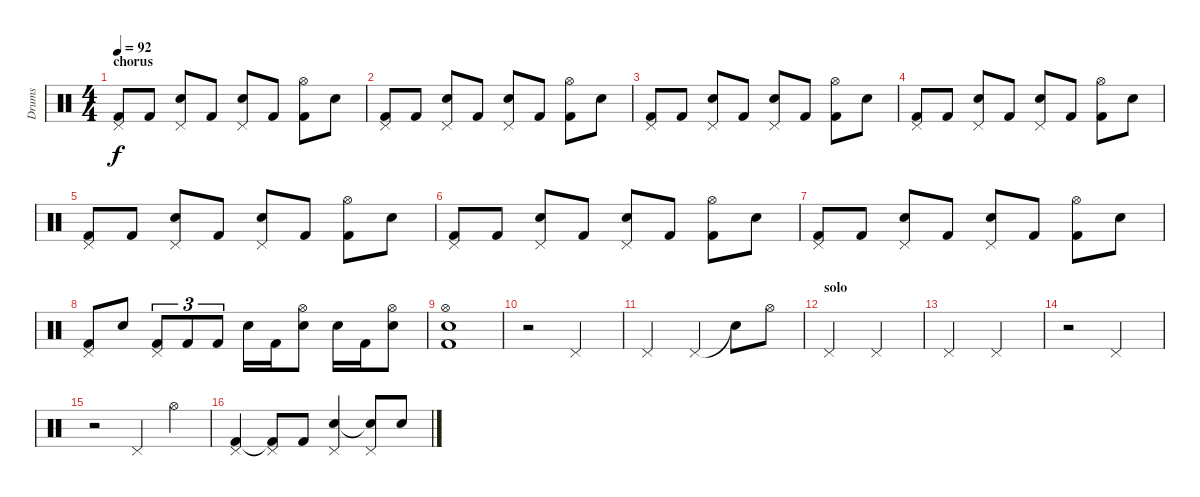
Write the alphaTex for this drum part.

\track ("Drums" "Drums") {instrument percussion}
\staff {score}
\articulation defaults
\ts (4 4)
\section ("" "chorus")
\tempo 92
\clef neutral
\ks c
("Pedal Hi-Hat (hit)" "Kick (hit) 2").8{dy f} "Kick (hit) 2".8 ("Pedal Hi-Hat (hit)" "Snare (hit) 2").8 "Kick (hit) 2".8 ("Pedal Hi-Hat (hit)" "Snare (hit) 2").8 "Kick (hit) 2".8 ("Hi-Hat (open)" "Kick (hit) 2").8 "Snare (hit) 2".8 |
("Pedal Hi-Hat (hit)" "Kick (hit) 2").8 "Kick (hit) 2".8 ("Pedal Hi-Hat (hit)" "Snare (hit) 2").8 "Kick (hit) 2".8 ("Pedal Hi-Hat (hit)" "Snare (hit) 2").8 "Kick (hit) 2".8 ("Hi-Hat (open)" "Kick (hit) 2").8 "Snare (hit) 2".8 |
("Pedal Hi-Hat (hit)" "Kick (hit) 2").8 "Kick (hit) 2".8 ("Pedal Hi-Hat (hit)" "Snare (hit) 2").8 "Kick (hit) 2".8 ("Pedal Hi-Hat (hit)" "Snare (hit) 2").8 "Kick (hit) 2".8 ("Hi-Hat (open)" "Kick (hit) 2").8 "Snare (hit) 2".8 |
("Pedal Hi-Hat (hit)" "Kick (hit) 2").8 "Kick (hit) 2".8 ("Pedal Hi-Hat (hit)" "Snare (hit) 2").8 "Kick (hit) 2".8 ("Pedal Hi-Hat (hit)" "Snare (hit) 2").8 "Kick (hit) 2".8 ("Hi-Hat (open)" "Kick (hit) 2").8 "Snare (hit) 2".8 |
("Pedal Hi-Hat (hit)" "Kick (hit) 2").8 "Kick (hit) 2".8 ("Pedal Hi-Hat (hit)" "Snare (hit) 2").8 "Kick (hit) 2".8 ("Pedal Hi-Hat (hit)" "Snare (hit) 2").8 "Kick (hit) 2".8 ("Hi-Hat (open)" "Kick (hit) 2").8 "Snare (hit) 2".8 |
("Pedal Hi-Hat (hit)" "Kick (hit) 2").8 "Kick (hit) 2".8 ("Pedal Hi-Hat (hit)" "Snare (hit) 2").8 "Kick (hit) 2".8 ("Pedal Hi-Hat (hit)" "Snare (hit) 2").8 "Kick (hit) 2".8 ("Hi-Hat (open)" "Kick (hit) 2").8 "Snare (hit) 2".8 |
("Pedal Hi-Hat (hit)" "Kick (hit) 2").8 "Kick (hit) 2".8 ("Pedal Hi-Hat (hit)" "Snare (hit) 2").8 "Kick (hit) 2".8 ("Pedal Hi-Hat (hit)" "Snare (hit) 2").8 "Kick (hit) 2".8 ("Hi-Hat (open)" "Kick (hit) 2").8 "Snare (hit) 2".8 |
("Pedal Hi-Hat (hit)" "Kick (hit) 2").8 "Snare (hit) 2".8 ("Pedal Hi-Hat (hit)" "Kick (hit) 2").8{tu (3 2)} "Kick (hit) 2".8{tu (3 2)} "Kick (hit) 2".8{tu (3 2)} "Snare (hit) 2".16 "Kick (hit) 2".16 ("Hi-Hat (open)" "Snare (hit) 2").8 "Snare (hit) 2".16 "Kick (hit) 2".16 ("Hi-Hat (open)" "Snare (hit) 2").8 |
("Hi-Hat (open)" "Snare (hit) 2" "Kick (hit) 2").1 |
r.2 "Pedal Hi-Hat (hit)".2 |
"Pedal Hi-Hat (hit)".2 "Pedal Hi-Hat (hit)".4 "Snare (hit)"{t}.8 "Hi-Hat (open)".8 |
\section ("" "solo")
"Pedal Hi-Hat (hit)".2 "Pedal Hi-Hat (hit)".2 |
"Pedal Hi-Hat (hit)".2 "Pedal Hi-Hat (hit)".2 |
r.2 "Pedal Hi-Hat (hit)".2 |
r.2 "Pedal Hi-Hat (hit)".4 "Hi-Hat (open)".4 |
("Pedal Hi-Hat (hit)" "Kick (hit) 2").4 ("Pedal Hi-Hat (hit)" "Kick (hit) 2"{t}).8 "Kick (hit) 2".8 ("Pedal Hi-Hat (hit)" "Snare (hit) 2").4 ("Pedal Hi-Hat (hit)" "Snare (hit)"{t}).8 "Snare (hit) 2".8
